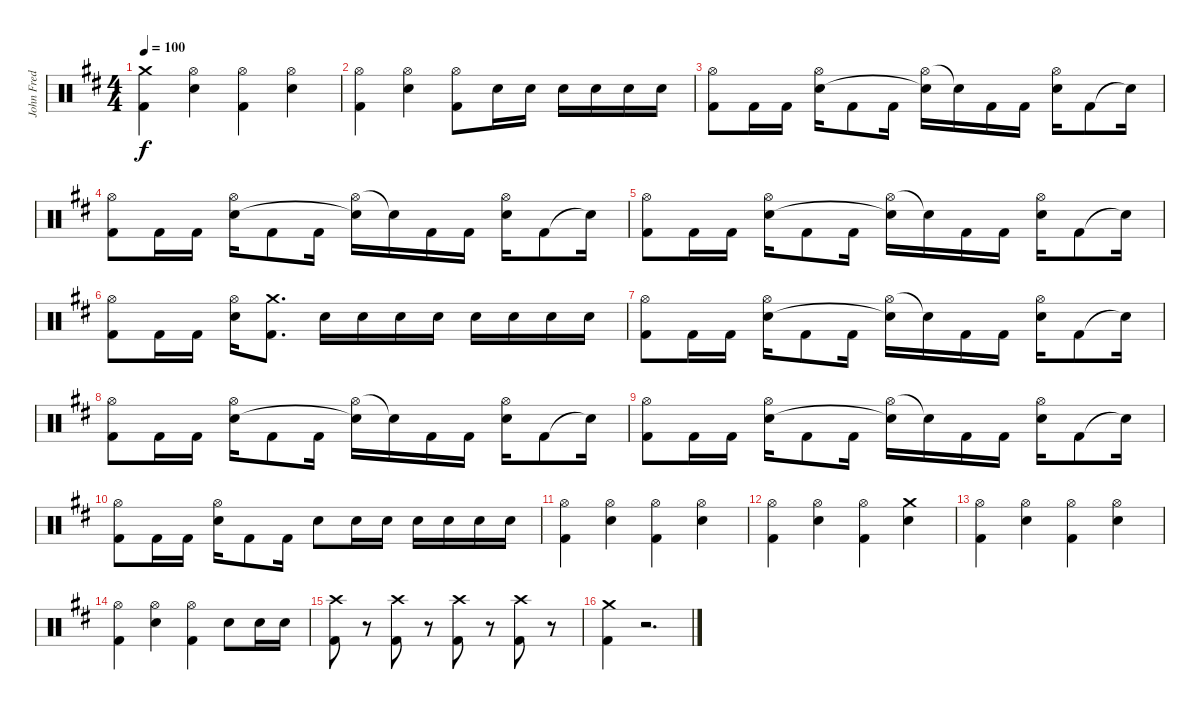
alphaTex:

\track ("John Fred Young" "John Fred ") {instrument percussion}
\staff {score}
\articulation defaults
\ts (4 4)
\tempo 100
\clef neutral
\ks bminor
("Crash medium (hit)" "Kick (hit) 2").4{dy f} ("Hi-Hat (open)" "Snare (hit) 2").4 ("Hi-Hat (open)" "Kick (hit) 2").4 ("Hi-Hat (open)" "Snare (hit) 2").4 |
("Hi-Hat (open)" "Kick (hit) 2").4 ("Hi-Hat (open)" "Snare (hit) 2").4 ("Hi-Hat (open)" "Kick (hit) 2").8 "Snare (hit) 2".16 "Snare (hit) 2".16 "Snare (hit) 2".16 "Snare (hit) 2".16 "Snare (hit) 2".16 "Snare (hit) 2".16 |
("Hi-Hat (open)" "Kick (hit) 2").8 "Kick (hit) 2".16 "Kick (hit) 2".16 ("Hi-Hat (open)" "Snare (hit) 2").16 "Kick (hit) 2".8 "Kick (hit) 2".16 ("Hi-Hat (open)" "Snare (hit)"{t}).16 "Snare (hit)"{t}.16 "Kick (hit) 2".16 "Kick (hit) 2".16 ("Hi-Hat (open)" "Snare (hit) 2").16 "Kick (hit) 2".8 "Snare (hit)"{t}.16 |
("Hi-Hat (open)" "Kick (hit) 2").8 "Kick (hit) 2".16 "Kick (hit) 2".16 ("Hi-Hat (open)" "Snare (hit) 2").16 "Kick (hit) 2".8 "Kick (hit) 2".16 ("Hi-Hat (open)" "Snare (hit)"{t}).16 "Snare (hit)"{t}.16 "Kick (hit) 2".16 "Kick (hit) 2".16 ("Hi-Hat (open)" "Snare (hit) 2").16 "Kick (hit) 2".8 "Snare (hit)"{t}.16 |
("Hi-Hat (open)" "Kick (hit) 2").8 "Kick (hit) 2".16 "Kick (hit) 2".16 ("Hi-Hat (open)" "Snare (hit) 2").16 "Kick (hit) 2".8 "Kick (hit) 2".16 ("Hi-Hat (open)" "Snare (hit)"{t}).16 "Snare (hit)"{t}.16 "Kick (hit) 2".16 "Kick (hit) 2".16 ("Hi-Hat (open)" "Snare (hit) 2").16 "Kick (hit) 2".8 "Snare (hit)"{t}.16 |
("Hi-Hat (open)" "Kick (hit) 2").8 "Kick (hit) 2".16 "Kick (hit) 2".16 ("Hi-Hat (open)" "Snare (hit) 2").16 ("Crash medium (hit)" "Kick (hit) 2").8{d} "Snare (hit) 2".16 "Snare (hit) 2".16 "Snare (hit) 2".16 "Snare (hit) 2".16 "Snare (hit) 2".16 "Snare (hit) 2".16 "Snare (hit) 2".16 "Snare (hit) 2".16 |
("Hi-Hat (open)" "Kick (hit) 2").8 "Kick (hit) 2".16 "Kick (hit) 2".16 ("Hi-Hat (open)" "Snare (hit) 2").16 "Kick (hit) 2".8 "Kick (hit) 2".16 ("Hi-Hat (open)" "Snare (hit)"{t}).16 "Snare (hit)"{t}.16 "Kick (hit) 2".16 "Kick (hit) 2".16 ("Hi-Hat (open)" "Snare (hit) 2").16 "Kick (hit) 2".8 "Snare (hit)"{t}.16 |
("Hi-Hat (open)" "Kick (hit) 2").8 "Kick (hit) 2".16 "Kick (hit) 2".16 ("Hi-Hat (open)" "Snare (hit) 2").16 "Kick (hit) 2".8 "Kick (hit) 2".16 ("Hi-Hat (open)" "Snare (hit)"{t}).16 "Snare (hit)"{t}.16 "Kick (hit) 2".16 "Kick (hit) 2".16 ("Hi-Hat (open)" "Snare (hit) 2").16 "Kick (hit) 2".8 "Snare (hit)"{t}.16 |
("Hi-Hat (open)" "Kick (hit) 2").8 "Kick (hit) 2".16 "Kick (hit) 2".16 ("Hi-Hat (open)" "Snare (hit) 2").16 "Kick (hit) 2".8 "Kick (hit) 2".16 ("Hi-Hat (open)" "Snare (hit)"{t}).16 "Snare (hit)"{t}.16 "Kick (hit) 2".16 "Kick (hit) 2".16 ("Hi-Hat (open)" "Snare (hit) 2").16 "Kick (hit) 2".8 "Snare (hit)"{t}.16 |
("Hi-Hat (open)" "Kick (hit) 2").8 "Kick (hit) 2".16 "Kick (hit) 2".16 ("Hi-Hat (open)" "Snare (hit) 2").16 "Kick (hit) 2".8 "Kick (hit) 2".16 "Snare (hit) 2".8 "Snare (hit) 2".16 "Snare (hit) 2".16 "Snare (hit) 2".16 "Snare (hit) 2".16 "Snare (hit) 2".16 "Snare (hit) 2".16 |
("Hi-Hat (open)" "Kick (hit) 2").4 ("Hi-Hat (open)" "Snare (hit) 2").4 ("Hi-Hat (open)" "Kick (hit) 2").4 ("Hi-Hat (open)" "Snare (hit) 2").4 |
("Hi-Hat (open)" "Kick (hit) 2").4 ("Hi-Hat (open)" "Snare (hit) 2").4 ("Hi-Hat (open)" "Kick (hit) 2").4 ("Crash medium (hit)" "Snare (hit) 2").4 |
("Hi-Hat (open)" "Kick (hit) 2").4 ("Hi-Hat (open)" "Snare (hit) 2").4 ("Hi-Hat (open)" "Kick (hit) 2").4 ("Hi-Hat (open)" "Snare (hit) 2").4 |
("Hi-Hat (open)" "Kick (hit) 2").4 ("Hi-Hat (open)" "Snare (hit) 2").4 ("Hi-Hat (open)" "Kick (hit) 2").4 "Snare (hit) 2".8 "Snare (hit) 2".16 "Snare (hit) 2".16 |
("Crash high (hit)" "Kick (hit) 2").8 r.8 ("Crash high (hit)" "Kick (hit) 2").8 r.8 ("Crash high (hit)" "Kick (hit) 2").8 r.8 ("Crash high (hit)" "Kick (hit) 2").8 r.8 |
("Crash medium (hit)" "Kick (hit) 2").4 r.2{d}
